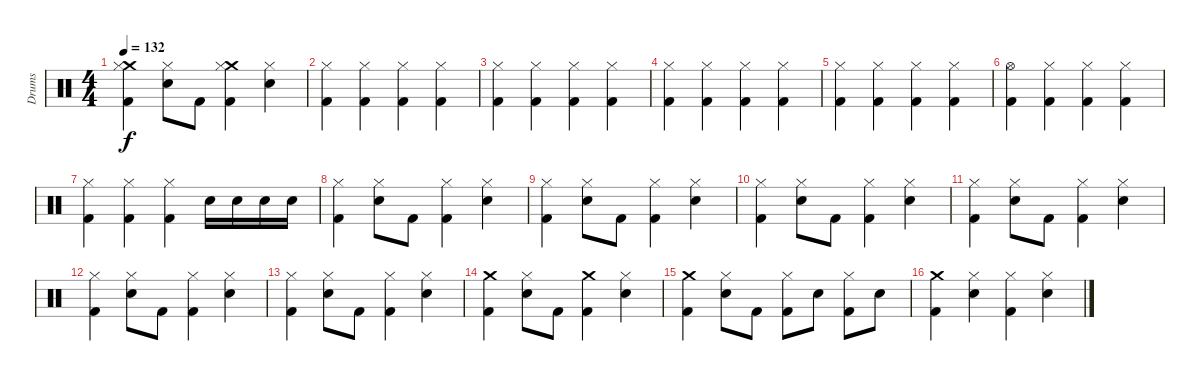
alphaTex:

\track ("Drums" "Drums") {instrument percussion}
\staff {score}
\articulation defaults
\ts (4 4)
\tempo 132
\clef neutral
\ks c
("Crash medium (hit)" "Hi-Hat (closed)" "Kick (hit) 2").4{dy f} ("Hi-Hat (closed)" "Snare (hit) 2").8 "Kick (hit) 2".8 ("Crash medium (hit)" "Hi-Hat (closed)" "Kick (hit) 2").4 ("Hi-Hat (closed)" "Snare (hit) 2").4 |
("Hi-Hat (closed)" "Kick (hit) 2").4 ("Hi-Hat (closed)" "Kick (hit) 2").4 ("Hi-Hat (closed)" "Kick (hit) 2").4 ("Hi-Hat (closed)" "Kick (hit) 2").4 |
("Kick (hit) 2" "Hi-Hat (closed)").4 ("Kick (hit) 2" "Hi-Hat (closed)").4 ("Kick (hit) 2" "Hi-Hat (closed)").4 ("Kick (hit) 2" "Hi-Hat (closed)").4 |
("Hi-Hat (closed)" "Kick (hit) 2").4 ("Hi-Hat (closed)" "Kick (hit) 2").4 ("Hi-Hat (closed)" "Kick (hit) 2").4 ("Hi-Hat (closed)" "Kick (hit) 2").4 |
("Kick (hit) 2" "Hi-Hat (closed)").4 ("Kick (hit) 2" "Hi-Hat (closed)").4 ("Kick (hit) 2" "Hi-Hat (closed)").4 ("Kick (hit) 2" "Hi-Hat (closed)").4 |
("Kick (hit) 2" "Hi-Hat (open)").4 ("Kick (hit) 2" "Hi-Hat (closed)").4 ("Kick (hit) 2" "Hi-Hat (closed)").4 ("Kick (hit) 2" "Hi-Hat (closed)").4 |
("Hi-Hat (closed)" "Kick (hit) 2").4 ("Hi-Hat (closed)" "Kick (hit) 2").4 ("Hi-Hat (closed)" "Kick (hit) 2").4 "Snare (hit) 2".16 "Snare (hit) 2".16 "Snare (hit) 2".16 "Snare (hit) 2".16 |
("Hi-Hat (closed)" "Kick (hit) 2").4 ("Hi-Hat (closed)" "Snare (hit) 2").8 "Kick (hit) 2".8 ("Hi-Hat (closed)" "Kick (hit) 2").4 ("Hi-Hat (closed)" "Snare (hit) 2").4 |
("Hi-Hat (closed)" "Kick (hit) 2").4 ("Hi-Hat (closed)" "Snare (hit) 2").8 "Kick (hit) 2".8 ("Hi-Hat (closed)" "Kick (hit) 2").4 ("Hi-Hat (closed)" "Snare (hit) 2").4 |
("Hi-Hat (closed)" "Kick (hit) 2").4 ("Hi-Hat (closed)" "Snare (hit) 2").8 "Kick (hit) 2".8 ("Hi-Hat (closed)" "Kick (hit) 2").4 ("Hi-Hat (closed)" "Snare (hit) 2").4 |
("Hi-Hat (closed)" "Kick (hit) 2").4 ("Hi-Hat (closed)" "Snare (hit) 2").8 "Kick (hit) 2".8 ("Hi-Hat (closed)" "Kick (hit) 2").4 ("Hi-Hat (closed)" "Snare (hit) 2").4 |
("Hi-Hat (closed)" "Kick (hit) 2").4 ("Hi-Hat (closed)" "Snare (hit) 2").8 "Kick (hit) 2".8 ("Hi-Hat (closed)" "Kick (hit) 2").4 ("Hi-Hat (closed)" "Snare (hit) 2").4 |
("Hi-Hat (closed)" "Kick (hit) 2").4 ("Hi-Hat (closed)" "Snare (hit) 2").8 "Kick (hit) 2".8 ("Hi-Hat (closed)" "Kick (hit) 2").4 ("Hi-Hat (closed)" "Snare (hit) 2").4 |
("Crash medium (hit)" "Kick (hit) 2").4 ("Hi-Hat (closed)" "Snare (hit) 2").8 "Kick (hit) 2".8 ("Crash medium (hit)" "Kick (hit) 2").4 ("Hi-Hat (closed)" "Snare (hit) 2").4 |
("Crash medium (hit)" "Kick (hit) 2").4 ("Hi-Hat (closed)" "Snare (hit) 2").8 "Kick (hit) 2".8 ("Kick (hit) 2" "Hi-Hat (closed)").8 "Snare (hit) 2".8 ("Kick (hit) 2" "Hi-Hat (closed)").8 "Snare (hit) 2".8 |
("Crash medium (hit)" "Kick (hit) 2").4 ("Hi-Hat (closed)" "Snare (hit) 2").4 ("Hi-Hat (closed)" "Kick (hit) 2").4 ("Hi-Hat (closed)" "Snare (hit) 2").4
